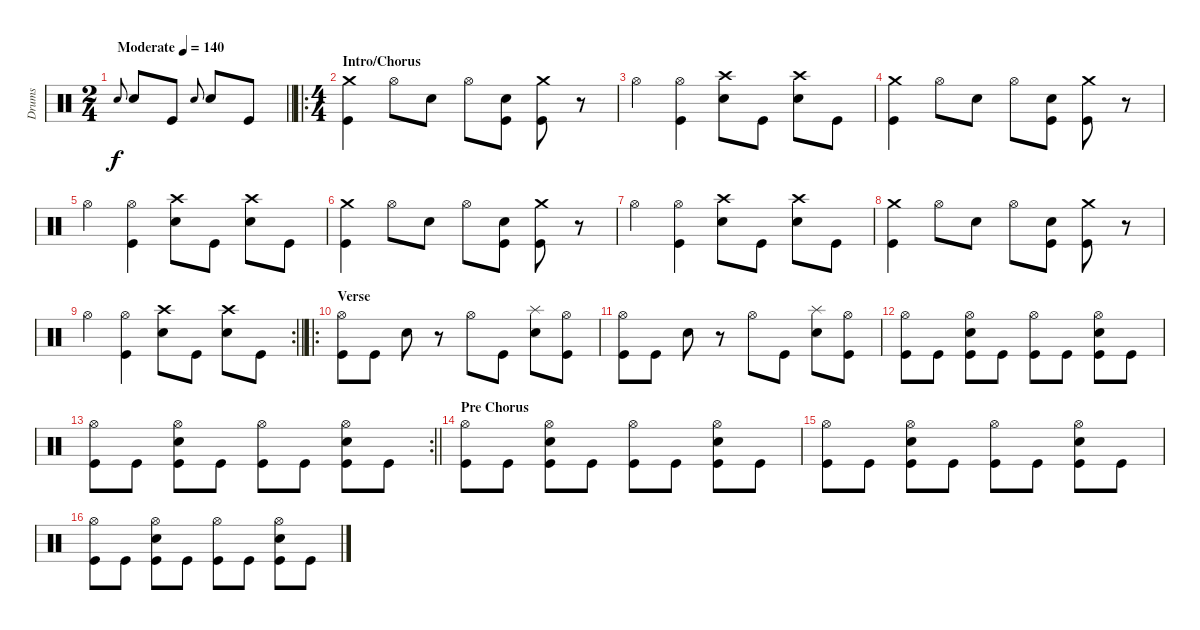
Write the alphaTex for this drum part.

\track ("Drums" "Drums") {instrument percussion}
\staff {score}
\articulation defaults
\ts (2 4)
\tempo (140 "Moderate")
\clef neutral
\barLineRight lightlight
\ks c "Snare (hit) 2".8{gr onbeat dy f} "Snare (hit) 2".8 "Kick (hit)".8 "Snare (hit) 2".8{gr onbeat} "Snare (hit) 2".8 "Kick (hit)".8
|
\ro
\ts (4 4)
\section ("" "Intro/Chorus")
("Crash medium (hit)" "Kick (hit)").4 "Hi-Hat (open)".8 "Snare (hit) 2".8 "Hi-Hat (open)".8 ("Snare (hit) 2" "Kick (hit)").8 ("Crash medium (hit)" "Kick (hit)").8 r.8 |
"Hi-Hat (open)".4 ("Hi-Hat (open)" "Kick (hit)").4 ("Crash high (hit)" "Snare (hit) 2").8 "Kick (hit)".8 ("Crash high (hit)" "Snare (hit) 2").8 "Kick (hit)".8 |
("Crash medium (hit)" "Kick (hit)").4 "Hi-Hat (open)".8 "Snare (hit) 2".8 "Hi-Hat (open)".8 ("Snare (hit) 2" "Kick (hit)").8 ("Crash medium (hit)" "Kick (hit)").8 r.8 |
"Hi-Hat (open)".4 ("Hi-Hat (open)" "Kick (hit)").4 ("Crash high (hit)" "Snare (hit) 2").8 "Kick (hit)".8 ("Crash high (hit)" "Snare (hit) 2").8 "Kick (hit)".8 |
("Crash medium (hit)" "Kick (hit)").4 "Hi-Hat (open)".8 "Snare (hit) 2".8 "Hi-Hat (open)".8 ("Snare (hit) 2" "Kick (hit)").8 ("Crash medium (hit)" "Kick (hit)").8 r.8 |
"Hi-Hat (open)".4 ("Hi-Hat (open)" "Kick (hit)").4 ("Crash high (hit)" "Snare (hit) 2").8 "Kick (hit)".8 ("Crash high (hit)" "Snare (hit) 2").8 "Kick (hit)".8 |
("Crash medium (hit)" "Kick (hit)").4 "Hi-Hat (open)".8 "Snare (hit) 2".8 "Hi-Hat (open)".8 ("Snare (hit) 2" "Kick (hit)").8 ("Crash medium (hit)" "Kick (hit)").8 r.8 |
\rc 2
\barLineRight lightlight "Hi-Hat (open)".4
("Hi-Hat (open)" "Kick (hit)").4 ("Crash high (hit)" "Snare (hit) 2").8 "Kick (hit)".8 ("Crash high (hit)" "Snare (hit) 2").8 "Kick (hit)".8 |
\ro
\section ("" "Verse")
("Hi-Hat (open)" "Kick (hit)").8 "Kick (hit)".8 "Snare (hit) 2".8 r.8 "Hi-Hat (open)".8 "Kick (hit)".8 ("Splash (hit)" "Snare (hit) 2").8 ("Hi-Hat (open)" "Kick (hit)").8 |
("Hi-Hat (open)" "Kick (hit)").8 "Kick (hit)".8 "Snare (hit) 2".8 r.8 "Hi-Hat (open)".8 "Kick (hit)".8 ("Splash (hit)" "Snare (hit) 2").8 ("Hi-Hat (open)" "Kick (hit)").8 |
("Hi-Hat (open)" "Kick (hit)").8 "Kick (hit)".8 ("Hi-Hat (open)" "Snare (hit) 2" "Kick (hit)").8 "Kick (hit)".8 ("Hi-Hat (open)" "Kick (hit)").8 "Kick (hit)".8 ("Hi-Hat (open)" "Snare (hit) 2" "Kick (hit)").8 "Kick (hit)".8 |
\rc 2
\barLineRight lightlight
("Hi-Hat (open)" "Kick (hit)").8 "Kick (hit)".8 ("Hi-Hat (open)" "Snare (hit) 2" "Kick (hit)").8 "Kick (hit)".8 ("Hi-Hat (open)" "Kick (hit)").8 "Kick (hit)".8 ("Hi-Hat (open)" "Snare (hit) 2" "Kick (hit)").8 "Kick (hit)".8 |
\section ("" "Pre Chorus")
("Hi-Hat (open)" "Kick (hit)").8 "Kick (hit)".8 ("Hi-Hat (open)" "Snare (hit) 2" "Kick (hit)").8 "Kick (hit)".8 ("Hi-Hat (open)" "Kick (hit)").8 "Kick (hit)".8 ("Hi-Hat (open)" "Snare (hit) 2" "Kick (hit)").8 "Kick (hit)".8 |
("Hi-Hat (open)" "Kick (hit)").8 "Kick (hit)".8 ("Hi-Hat (open)" "Snare (hit) 2" "Kick (hit)").8 "Kick (hit)".8 ("Hi-Hat (open)" "Kick (hit)").8 "Kick (hit)".8 ("Hi-Hat (open)" "Snare (hit) 2" "Kick (hit)").8 "Kick (hit)".8 |
("Hi-Hat (open)" "Kick (hit)").8 "Kick (hit)".8 ("Hi-Hat (open)" "Snare (hit) 2" "Kick (hit)").8 "Kick (hit)".8 ("Hi-Hat (open)" "Kick (hit)").8 "Kick (hit)".8 ("Hi-Hat (open)" "Snare (hit) 2" "Kick (hit)").8 "Kick (hit)".8
